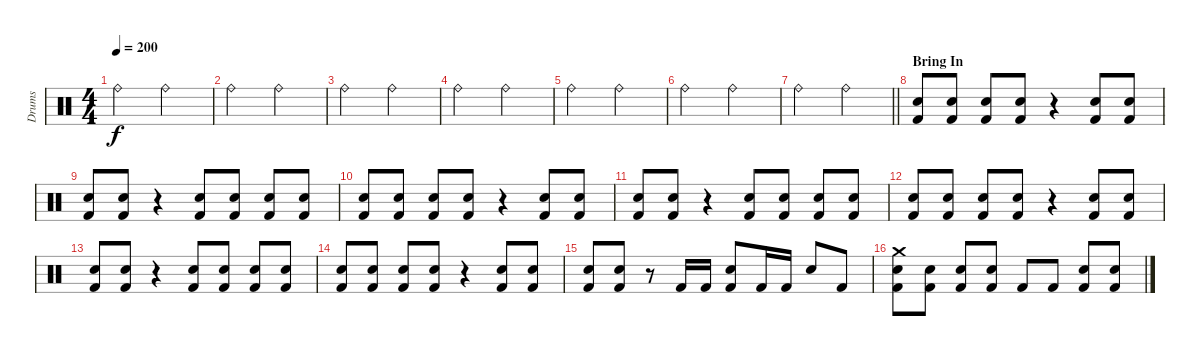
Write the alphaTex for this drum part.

\track ("Drums" "Drums") {instrument percussion}
\staff {score}
\articulation defaults
\ts (4 4)
\tempo 200
\clef neutral
\ks c "Ride (bell)".2{dy f} "Ride (bell)".2
|
"Ride (bell)".2 "Ride (bell)".2 |
"Ride (bell)".2 "Ride (bell)".2 |
"Ride (bell)".2 "Ride (bell)".2 |
"Ride (bell)".2 "Ride (bell)".2 |
"Ride (bell)".2 "Ride (bell)".2 |
\barLineRight lightlight "Ride (bell)".2 "Ride (bell)".2
|
\section ("" "Bring In")
("Electric Snare (hit)" "Kick (hit) 2").8 ("Electric Snare (hit)" "Kick (hit) 2").8 ("Electric Snare (hit)" "Kick (hit) 2").8 ("Electric Snare (hit)" "Kick (hit) 2").8 r.4 ("Electric Snare (hit)" "Kick (hit) 2").8 ("Electric Snare (hit)" "Kick (hit) 2").8 |
("Electric Snare (hit)" "Kick (hit) 2").8 ("Electric Snare (hit)" "Kick (hit) 2").8 r.4 ("Electric Snare (hit)" "Kick (hit) 2").8 ("Electric Snare (hit)" "Kick (hit) 2").8 ("Electric Snare (hit)" "Kick (hit) 2").8 ("Electric Snare (hit)" "Kick (hit) 2").8 |
("Electric Snare (hit)" "Kick (hit) 2").8 ("Electric Snare (hit)" "Kick (hit) 2").8 ("Electric Snare (hit)" "Kick (hit) 2").8 ("Electric Snare (hit)" "Kick (hit) 2").8 r.4 ("Electric Snare (hit)" "Kick (hit) 2").8 ("Electric Snare (hit)" "Kick (hit) 2").8 |
("Electric Snare (hit)" "Kick (hit) 2").8 ("Electric Snare (hit)" "Kick (hit) 2").8 r.4 ("Electric Snare (hit)" "Kick (hit) 2").8 ("Electric Snare (hit)" "Kick (hit) 2").8 ("Electric Snare (hit)" "Kick (hit) 2").8 ("Electric Snare (hit)" "Kick (hit) 2").8 |
("Electric Snare (hit)" "Kick (hit) 2").8 ("Electric Snare (hit)" "Kick (hit) 2").8 ("Electric Snare (hit)" "Kick (hit) 2").8 ("Electric Snare (hit)" "Kick (hit) 2").8 r.4 ("Electric Snare (hit)" "Kick (hit) 2").8 ("Electric Snare (hit)" "Kick (hit) 2").8 |
("Electric Snare (hit)" "Kick (hit) 2").8 ("Electric Snare (hit)" "Kick (hit) 2").8 r.4 ("Electric Snare (hit)" "Kick (hit) 2").8 ("Electric Snare (hit)" "Kick (hit) 2").8 ("Electric Snare (hit)" "Kick (hit) 2").8 ("Electric Snare (hit)" "Kick (hit) 2").8 |
("Electric Snare (hit)" "Kick (hit) 2").8 ("Electric Snare (hit)" "Kick (hit) 2").8 ("Electric Snare (hit)" "Kick (hit) 2").8 ("Electric Snare (hit)" "Kick (hit) 2").8 r.4 ("Electric Snare (hit)" "Kick (hit) 2").8 ("Electric Snare (hit)" "Kick (hit) 2").8 |
("Electric Snare (hit)" "Kick (hit) 2").8 ("Electric Snare (hit)" "Kick (hit) 2").8 r.8 "Kick (hit) 2".16 "Kick (hit) 2".16 ("Electric Snare (hit)" "Kick (hit) 2").8 "Kick (hit) 2".16 "Kick (hit) 2".16 "Electric Snare (hit)".8 "Kick (hit) 2".8 |
("Crash medium (hit)" "Electric Snare (hit)" "Kick (hit) 2").8 ("Electric Snare (hit)" "Kick (hit) 2").8 ("Electric Snare (hit)" "Kick (hit) 2").8 ("Electric Snare (hit)" "Kick (hit) 2").8 "Kick (hit) 2".8 "Kick (hit) 2".8 ("Electric Snare (hit)" "Kick (hit) 2").8 ("Electric Snare (hit)" "Kick (hit) 2").8
